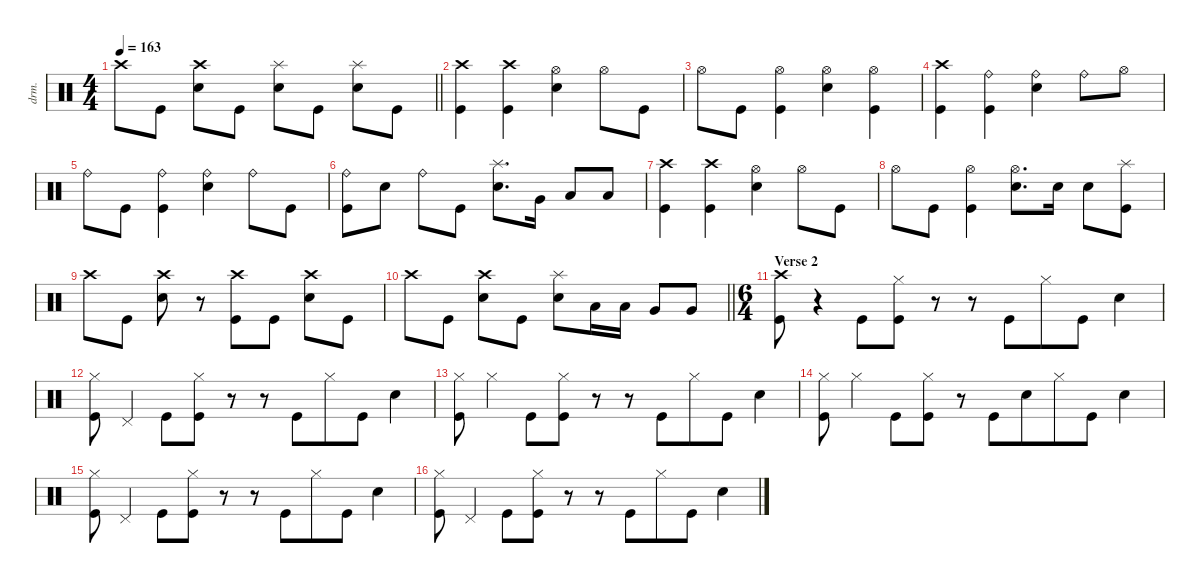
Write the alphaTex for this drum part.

\defaultSystemsLayout 4
\hideDynamics
\bracketExtendMode nobrackets
\otherSystemsTrackNameOrientation horizontal
\track ("Drums" "drm.") {instrument percussion}
\staff {score}
\articulation defaults
\ts (4 4)
\tempo 163
\clef neutral
\barLineRight lightlight
\ks c "Crash high (hit)".8{dy f} "Kick (hit)".8
("Crash high (hit)" "Snare (hit) 2").8 "Kick (hit)".8 ("Splash (hit)" "Snare (hit) 2").8 "Kick (hit)".8 ("Splash (hit)" "Snare (hit) 2").8 "Kick (hit)".8 |
\section ("" "")
("Crash high (hit)" "Kick (hit)").4 ("Crash high (hit)" "Kick (hit)").4 ("Hi-Hat (open)" "Snare (hit) 2").4 "Hi-Hat (open)".8 "Kick (hit)".8 |
"Hi-Hat (open)".8 "Kick (hit)".8 ("Hi-Hat (open)" "Kick (hit)").4 ("Hi-Hat (open)" "Snare (hit) 2").4 ("Hi-Hat (open)" "Kick (hit)").4 |
("Crash high (hit)" "Kick (hit)").4 ("Ride (bell)" "Kick (hit)").4 ("Ride (bell)" "Snare (hit) 2").4 "Ride (bell)".8 "Hi-Hat (open)".8 |
"Ride (bell)".8 "Kick (hit)".8 ("Ride (bell)" "Kick (hit)").4 ("Ride (bell)" "Snare (hit) 2").4 "Ride (bell)".8 "Kick (hit)".8 |
("Ride (bell)" "Kick (hit)").8 "Snare (hit) 2".8 "Ride (bell)".8 "Kick (hit)".8 ("Splash (hit)" "Snare (hit) 2").8{d} "Very Low Tom (hit)".16 "Low Floor Tom (hit)".8 "Low Floor Tom (hit)".8 |
("Crash high (hit)" "Kick (hit)").4 ("Crash high (hit)" "Kick (hit)").4 ("Hi-Hat (open)" "Snare (hit) 2").4 "Hi-Hat (open)".8 "Kick (hit)".8 |
"Hi-Hat (open)".8 "Kick (hit)".8 ("Hi-Hat (open)" "Kick (hit)").4 ("Hi-Hat (open)" "Snare (hit) 2").8{d} "Snare (hit) 2".16 "Snare (hit) 2".8 ("Splash (hit)" "Kick (hit)").8 |
"Crash high (hit)".8 "Kick (hit)".8 ("Crash high (hit)" "Snare (hit) 2").8 r.8 ("Crash high (hit)" "Kick (hit)").8 "Kick (hit)".8 ("Crash high (hit)" "Snare (hit) 2").8 "Kick (hit)".8 |
\barLineRight lightlight "Crash high (hit)".8 "Kick (hit)".8
("Crash high (hit)" "Snare (hit) 2").8 "Kick (hit)".8 ("Splash (hit)" "Snare (hit) 2").8 "Low Tom (hit)".16 "Low Tom (hit)".16 "Very Low Tom (hit)".8 "Very Low Tom (hit)".8 |
\ts (6 4)
\beaming (8 6 6)
\section ("" "Verse 2")
("Crash high (hit)" "Kick (hit)").8 r.4 "Kick (hit)".8 ("Hi-Hat (closed)" "Kick (hit)").8 r.8 r.8 "Kick (hit)".8 "Hi-Hat (closed)".8 "Kick (hit)".8 "Snare (hit) 2".4 |
("Hi-Hat (closed)" "Kick (hit)").8 "Pedal Hi-Hat (hit)".4 "Kick (hit)".8 ("Hi-Hat (closed)" "Kick (hit)").8 r.8 r.8 "Kick (hit)".8 "Hi-Hat (closed)".8 "Kick (hit)".8 "Snare (hit) 2".4 |
("Hi-Hat (closed)" "Kick (hit)").8 "Hi-Hat (closed)".4 "Kick (hit)".8 ("Hi-Hat (closed)" "Kick (hit)").8 r.8 r.8 "Kick (hit)".8 "Hi-Hat (closed)".8 "Kick (hit)".8 "Snare (hit) 2".4 |
("Hi-Hat (closed)" "Kick (hit)").8 "Hi-Hat (closed)".4 "Kick (hit)".8 ("Hi-Hat (closed)" "Kick (hit)").8 r.8 "Kick (hit)".8 "Snare (hit) 2".8 "Hi-Hat (closed)".8 "Kick (hit)".8 "Snare (hit) 2".4 |
("Hi-Hat (closed)" "Kick (hit)").8 "Pedal Hi-Hat (hit)".4 "Kick (hit)".8 ("Hi-Hat (closed)" "Kick (hit)").8 r.8 r.8 "Kick (hit)".8 "Hi-Hat (closed)".8 "Kick (hit)".8 "Snare (hit) 2".4 |
("Hi-Hat (closed)" "Kick (hit)").8 "Pedal Hi-Hat (hit)".4 "Kick (hit)".8 ("Hi-Hat (closed)" "Kick (hit)").8 r.8 r.8 "Kick (hit)".8 "Hi-Hat (closed)".8 "Kick (hit)".8 "Snare (hit) 2".4
